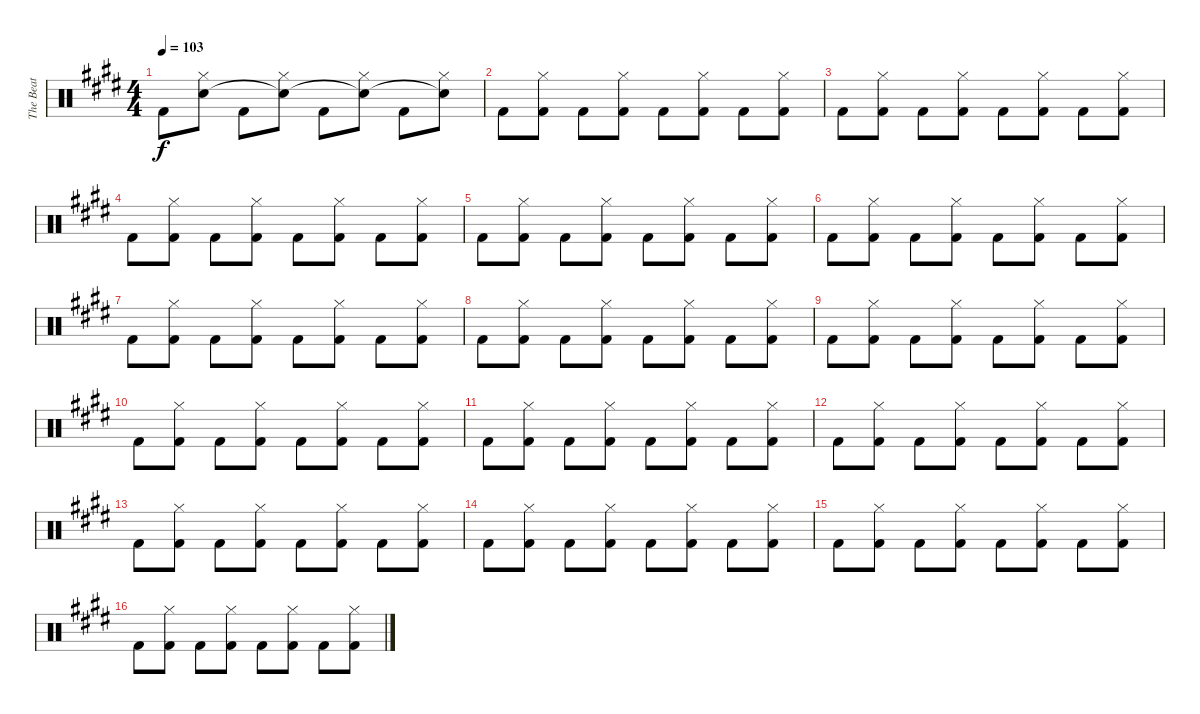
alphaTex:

\track ("The Beat" "The Beat") {instrument percussion}
\staff {score}
\articulation defaults
\ts (4 4)
\tempo 103
\clef neutral
\ks e "Kick (hit) 2".8{dy f}
("Hi-Hat (closed)" "Snare (hit)"{t}).8 "Kick (hit) 2".8 ("Hi-Hat (closed)" "Snare (hit)"{t}).8 "Kick (hit) 2".8 ("Hi-Hat (closed)" "Snare (hit)"{t}).8 "Kick (hit) 2".8 ("Hi-Hat (closed)" "Snare (hit)"{t}).8 |
"Kick (hit) 2".8 ("Hi-Hat (closed)" "Kick (hit) 2").8 "Kick (hit) 2".8 ("Hi-Hat (closed)" "Kick (hit) 2").8 "Kick (hit) 2".8 ("Hi-Hat (closed)" "Kick (hit) 2").8 "Kick (hit) 2".8 ("Hi-Hat (closed)" "Kick (hit) 2").8 |
"Kick (hit) 2".8 ("Hi-Hat (closed)" "Kick (hit) 2").8 "Kick (hit) 2".8 ("Hi-Hat (closed)" "Kick (hit) 2").8 "Kick (hit) 2".8 ("Hi-Hat (closed)" "Kick (hit) 2").8 "Kick (hit) 2".8 ("Hi-Hat (closed)" "Kick (hit) 2").8 |
"Kick (hit) 2".8 ("Hi-Hat (closed)" "Kick (hit) 2").8 "Kick (hit) 2".8 ("Hi-Hat (closed)" "Kick (hit) 2").8 "Kick (hit) 2".8 ("Hi-Hat (closed)" "Kick (hit) 2").8 "Kick (hit) 2".8 ("Hi-Hat (closed)" "Kick (hit) 2").8 |
"Kick (hit) 2".8 ("Hi-Hat (closed)" "Kick (hit) 2").8 "Kick (hit) 2".8 ("Hi-Hat (closed)" "Kick (hit) 2").8 "Kick (hit) 2".8 ("Hi-Hat (closed)" "Kick (hit) 2").8 "Kick (hit) 2".8 ("Hi-Hat (closed)" "Kick (hit) 2").8 |
"Kick (hit) 2".8 ("Hi-Hat (closed)" "Kick (hit) 2").8 "Kick (hit) 2".8 ("Hi-Hat (closed)" "Kick (hit) 2").8 "Kick (hit) 2".8 ("Hi-Hat (closed)" "Kick (hit) 2").8 "Kick (hit) 2".8 ("Hi-Hat (closed)" "Kick (hit) 2").8 |
"Kick (hit) 2".8 ("Hi-Hat (closed)" "Kick (hit) 2").8 "Kick (hit) 2".8 ("Hi-Hat (closed)" "Kick (hit) 2").8 "Kick (hit) 2".8 ("Hi-Hat (closed)" "Kick (hit) 2").8 "Kick (hit) 2".8 ("Hi-Hat (closed)" "Kick (hit) 2").8 |
"Kick (hit) 2".8 ("Hi-Hat (closed)" "Kick (hit) 2").8 "Kick (hit) 2".8 ("Hi-Hat (closed)" "Kick (hit) 2").8 "Kick (hit) 2".8 ("Hi-Hat (closed)" "Kick (hit) 2").8 "Kick (hit) 2".8 ("Hi-Hat (closed)" "Kick (hit) 2").8 |
"Kick (hit) 2".8 ("Hi-Hat (closed)" "Kick (hit) 2").8 "Kick (hit) 2".8 ("Hi-Hat (closed)" "Kick (hit) 2").8 "Kick (hit) 2".8 ("Hi-Hat (closed)" "Kick (hit) 2").8 "Kick (hit) 2".8 ("Hi-Hat (closed)" "Kick (hit) 2").8 |
"Kick (hit) 2".8 ("Hi-Hat (closed)" "Kick (hit) 2").8 "Kick (hit) 2".8 ("Hi-Hat (closed)" "Kick (hit) 2").8 "Kick (hit) 2".8 ("Hi-Hat (closed)" "Kick (hit) 2").8 "Kick (hit) 2".8 ("Hi-Hat (closed)" "Kick (hit) 2").8 |
"Kick (hit) 2".8 ("Hi-Hat (closed)" "Kick (hit) 2").8 "Kick (hit) 2".8 ("Hi-Hat (closed)" "Kick (hit) 2").8 "Kick (hit) 2".8 ("Hi-Hat (closed)" "Kick (hit) 2").8 "Kick (hit) 2".8 ("Hi-Hat (closed)" "Kick (hit) 2").8 |
"Kick (hit) 2".8 ("Hi-Hat (closed)" "Kick (hit) 2").8 "Kick (hit) 2".8 ("Hi-Hat (closed)" "Kick (hit) 2").8 "Kick (hit) 2".8 ("Hi-Hat (closed)" "Kick (hit) 2").8 "Kick (hit) 2".8 ("Hi-Hat (closed)" "Kick (hit) 2").8 |
"Kick (hit) 2".8 ("Hi-Hat (closed)" "Kick (hit) 2").8 "Kick (hit) 2".8 ("Hi-Hat (closed)" "Kick (hit) 2").8 "Kick (hit) 2".8 ("Hi-Hat (closed)" "Kick (hit) 2").8 "Kick (hit) 2".8 ("Hi-Hat (closed)" "Kick (hit) 2").8 |
"Kick (hit) 2".8 ("Hi-Hat (closed)" "Kick (hit) 2").8 "Kick (hit) 2".8 ("Hi-Hat (closed)" "Kick (hit) 2").8 "Kick (hit) 2".8 ("Hi-Hat (closed)" "Kick (hit) 2").8 "Kick (hit) 2".8 ("Hi-Hat (closed)" "Kick (hit) 2").8 |
"Kick (hit) 2".8 ("Hi-Hat (closed)" "Kick (hit) 2").8 "Kick (hit) 2".8 ("Hi-Hat (closed)" "Kick (hit) 2").8 "Kick (hit) 2".8 ("Hi-Hat (closed)" "Kick (hit) 2").8 "Kick (hit) 2".8 ("Hi-Hat (closed)" "Kick (hit) 2").8 |
"Kick (hit) 2".8 ("Hi-Hat (closed)" "Kick (hit) 2").8 "Kick (hit) 2".8 ("Hi-Hat (closed)" "Kick (hit) 2").8 "Kick (hit) 2".8 ("Hi-Hat (closed)" "Kick (hit) 2").8 "Kick (hit) 2".8 ("Hi-Hat (closed)" "Kick (hit) 2").8
